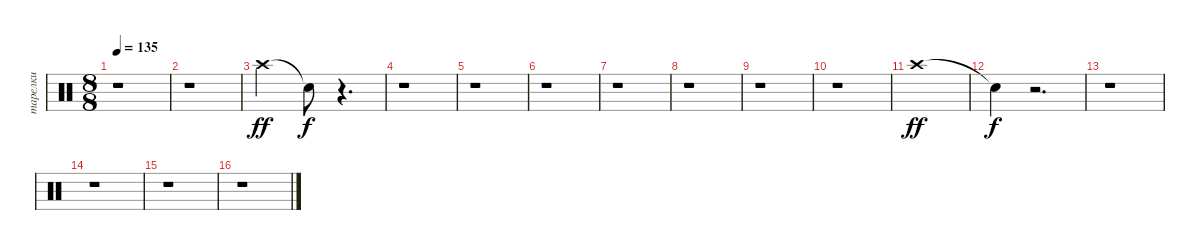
\track ("тарелки" "тарелки") {instrument percussion}
\staff {score}
\articulation defaults
\ts (8 8)
\tempo 135
\clef neutral
\ks c
r.1{dy ff} |
r.1 |
"Crash high (hit)".2 "Snare (hit)"{t}.8{dy f} r.4{d} |
r.1 |
r.1 |
r.1 |
r.1 |
r.1 |
r.1 |
r.1 |
"Crash high (hit)".1{dy ff} |
"Snare (hit)"{t}.4{dy f} r.2{d} |
r.1 |
r.1 |
r.1 |
r.1
